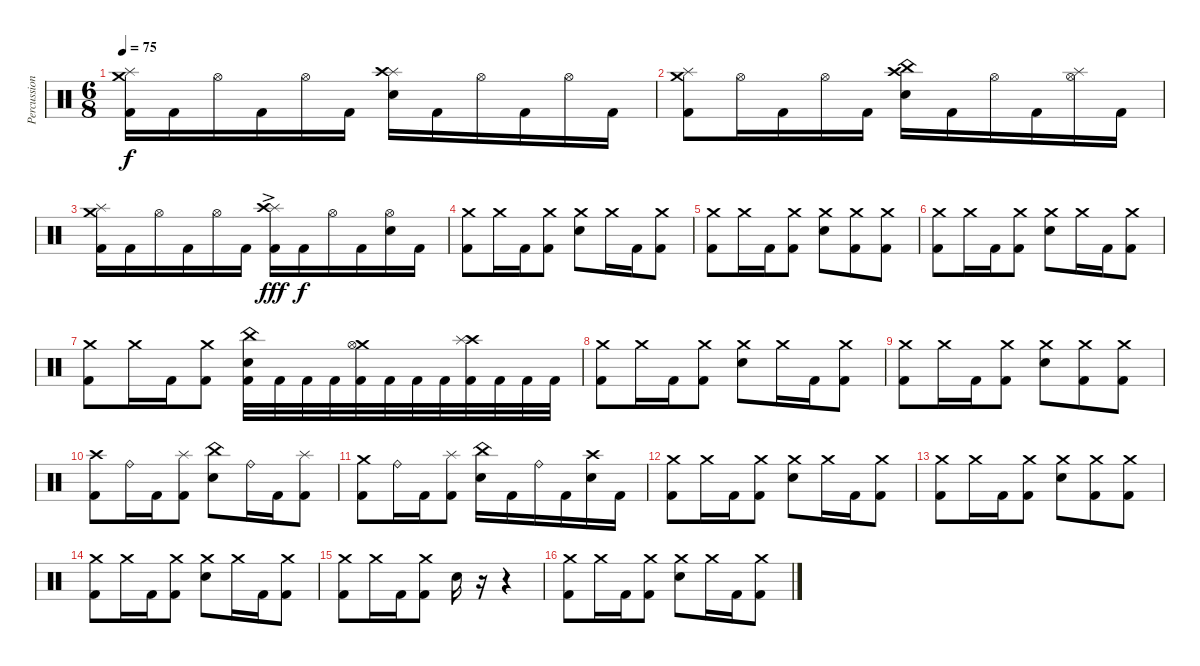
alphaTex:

\track ("Percussions" "Percussion") {instrument percussion}
\staff {score}
\articulation defaults
\ts (6 8)
\tempo 75
\clef neutral
\ks c
("Splash (hit)" "Crash medium (hit)" "Kick (hit) 2").16{dy f} "Kick (hit) 2".16 "Hi-Hat (open)".16 "Kick (hit) 2".16 "Hi-Hat (open)".16 "Kick (hit) 2".16 ("Splash (hit)" "Crash high (hit)" "Electric Snare (hit)").16 "Kick (hit) 2".16 "Hi-Hat (open)".16 "Kick (hit) 2".16 "Hi-Hat (open)".16 "Kick (hit) 2".16 |
("Splash (hit)" "Crash medium (hit)" "Kick (hit) 2").8 "Hi-Hat (open)".16 "Kick (hit) 2".16 "Hi-Hat (open)".16 "Kick (hit) 2".16 ("China (hit)" "Crash high (hit)" "Electric Snare (hit)").16 "Kick (hit) 2".16 "Hi-Hat (open)".16 "Kick (hit) 2".16 ("Splash (hit)" "Hi-Hat (open)").16 "Kick (hit) 2".16 |
("Splash (hit)" "Crash medium (hit)" "Kick (hit) 2").16 "Kick (hit) 2".16 "Hi-Hat (open)".16 "Kick (hit) 2".16 "Hi-Hat (open)".16 "Kick (hit) 2".16 ("Splash (hit)"{ac} "Crash high (hit)" "Kick (hit) 2").16{dy fff} "Kick (hit) 2".16{dy f} "Hi-Hat (open)".16 "Kick (hit) 2".16 ("Hi-Hat (open)" "Electric Snare (hit)").16 "Kick (hit) 2".16 |
("Crash medium (hit)" "Kick (hit) 2").8 "Crash medium (hit)".16 "Kick (hit) 2".16 ("Crash medium (hit)" "Kick (hit) 2").8 ("Crash medium (hit)" "Electric Snare (hit)").8 "Crash medium (hit)".16 "Kick (hit) 2".16 ("Crash medium (hit)" "Kick (hit) 2").8 |
("Crash medium (hit)" "Kick (hit) 2").8 "Crash medium (hit)".16 "Kick (hit) 2".16 ("Crash medium (hit)" "Kick (hit) 2").8 ("Crash medium (hit)" "Electric Snare (hit)").8 ("Crash medium (hit)" "Kick (hit) 2").8 ("Crash medium (hit)" "Kick (hit) 2").8 |
("Crash medium (hit)" "Kick (hit) 2").8 "Crash medium (hit)".16 "Kick (hit) 2".16 ("Crash medium (hit)" "Kick (hit) 2").8 ("Crash medium (hit)" "Electric Snare (hit)").8 "Crash medium (hit)".16 "Kick (hit) 2".16 ("Crash medium (hit)" "Kick (hit) 2").8 |
("Crash medium (hit)" "Kick (hit) 2").8 "Crash medium (hit)".16 "Kick (hit) 2".16 ("Crash medium (hit)" "Kick (hit) 2").8 ("China (hit)" "Electric Snare (hit)" "Kick (hit) 2").32 "Kick (hit) 2".32 "Kick (hit) 2".32 "Kick (hit) 2".32 ("Crash medium (hit)" "Hi-Hat (open)" "Kick (hit) 2").32 "Kick (hit) 2".32 "Kick (hit) 2".32 "Kick (hit) 2".32 ("Crash high (hit)" "Splash (hit)" "Kick (hit) 2").32 "Kick (hit) 2".32 "Kick (hit) 2".32 "Kick (hit) 2".32 |
("Crash medium (hit)" "Kick (hit) 2").8 "Crash medium (hit)".16 "Kick (hit) 2".16 ("Crash medium (hit)" "Kick (hit) 2").8 ("Crash medium (hit)" "Electric Snare (hit)").8 "Crash medium (hit)".16 "Kick (hit) 2".16 ("Crash medium (hit)" "Kick (hit) 2").8 |
("Crash medium (hit)" "Kick (hit) 2").8 "Crash medium (hit)".16 "Kick (hit) 2".16 ("Crash medium (hit)" "Kick (hit) 2").8 ("Crash medium (hit)" "Electric Snare (hit)").8 ("Crash medium (hit)" "Kick (hit) 2").8 ("Crash medium (hit)" "Kick (hit) 2").8 |
("Crash high (hit)" "Kick (hit) 2").8 "Ride (bell)".16 "Kick (hit) 2".16 ("Splash (hit)" "Kick (hit) 2").8 ("China (hit)" "Electric Snare (hit)").8 "Ride (bell)".16 "Kick (hit) 2".16 ("Splash (hit)" "Kick (hit) 2").8 |
("Crash medium (hit)" "Kick (hit) 2").8 "Ride (bell)".16 "Kick (hit) 2".16 ("Splash (hit)" "Kick (hit) 2").8 ("China (hit)" "Electric Snare (hit)").16 "Kick (hit) 2".16 "Ride (bell)".16 "Kick (hit) 2".16 ("Crash high (hit)" "Electric Snare (hit)").16 "Kick (hit) 2".16 |
("Crash medium (hit)" "Kick (hit) 2").8 "Crash medium (hit)".16 "Kick (hit) 2".16 ("Crash medium (hit)" "Kick (hit) 2").8 ("Crash medium (hit)" "Electric Snare (hit)").8 "Crash medium (hit)".16 "Kick (hit) 2".16 ("Crash medium (hit)" "Kick (hit) 2").8 |
("Crash medium (hit)" "Kick (hit) 2").8 "Crash medium (hit)".16 "Kick (hit) 2".16 ("Crash medium (hit)" "Kick (hit) 2").8 ("Crash medium (hit)" "Electric Snare (hit)").8 ("Crash medium (hit)" "Kick (hit) 2").8 ("Crash medium (hit)" "Kick (hit) 2").8 |
("Crash medium (hit)" "Kick (hit) 2").8 "Crash medium (hit)".16 "Kick (hit) 2".16 ("Crash medium (hit)" "Kick (hit) 2").8 ("Crash medium (hit)" "Electric Snare (hit)").8 "Crash medium (hit)".16 "Kick (hit) 2".16 ("Crash medium (hit)" "Kick (hit) 2").8 |
("Crash medium (hit)" "Kick (hit) 2").8 "Crash medium (hit)".16 "Kick (hit) 2".16 ("Crash medium (hit)" "Kick (hit) 2").8 "Electric Snare (hit)".16 r.16 r.4 |
("Crash medium (hit)" "Kick (hit) 2").8 "Crash medium (hit)".16 "Kick (hit) 2".16 ("Crash medium (hit)" "Kick (hit) 2").8 ("Crash medium (hit)" "Electric Snare (hit)").8 "Crash medium (hit)".16 "Kick (hit) 2".16 ("Crash medium (hit)" "Kick (hit) 2").8
